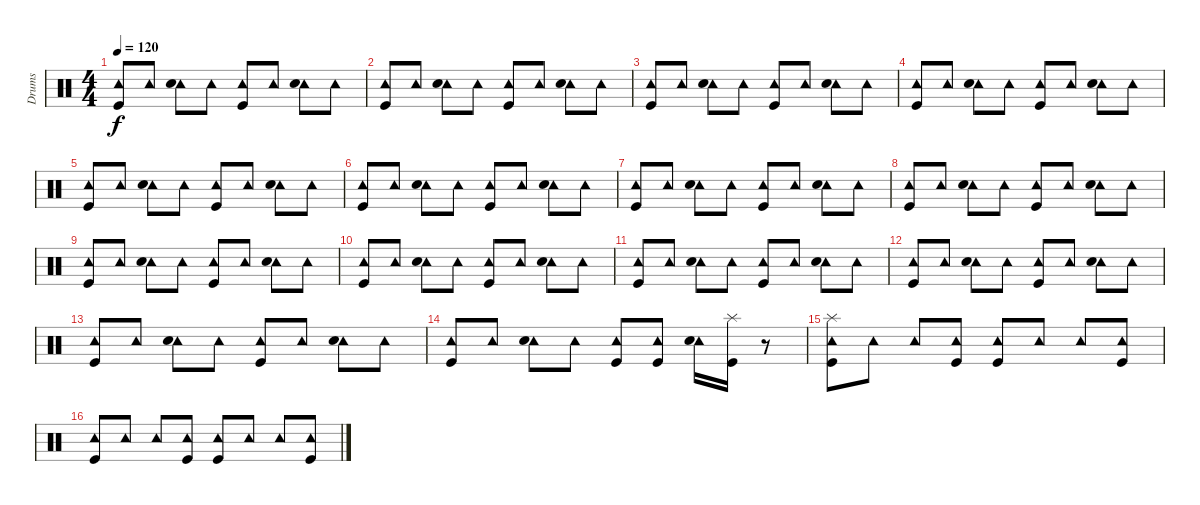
\track ("Drums" "Drums") {instrument percussion}
\staff {score}
\articulation defaults
\ts (4 4)
\tempo 120
\clef neutral
\ks c
("Tambourine (hit)" "Kick (hit)").8{dy f} "Tambourine (hit)".8 ("Tambourine (hit)" "Snare (hit) 2").8 "Tambourine (hit)".8 ("Tambourine (hit)" "Kick (hit)").8 "Tambourine (hit)".8 ("Tambourine (hit)" "Snare (hit) 2").8 "Tambourine (hit)".8 |
("Tambourine (hit)" "Kick (hit)").8 "Tambourine (hit)".8 ("Tambourine (hit)" "Snare (hit) 2").8 "Tambourine (hit)".8 ("Tambourine (hit)" "Kick (hit)").8 "Tambourine (hit)".8 ("Tambourine (hit)" "Snare (hit) 2").8 "Tambourine (hit)".8 |
("Tambourine (hit)" "Kick (hit)").8 "Tambourine (hit)".8 ("Tambourine (hit)" "Snare (hit) 2").8 "Tambourine (hit)".8 ("Tambourine (hit)" "Kick (hit)").8 "Tambourine (hit)".8 ("Tambourine (hit)" "Snare (hit) 2").8 "Tambourine (hit)".8 |
("Tambourine (hit)" "Kick (hit)").8 "Tambourine (hit)".8 ("Tambourine (hit)" "Snare (hit) 2").8 "Tambourine (hit)".8 ("Tambourine (hit)" "Kick (hit)").8 "Tambourine (hit)".8 ("Tambourine (hit)" "Snare (hit) 2").8 "Tambourine (hit)".8 |
("Tambourine (hit)" "Kick (hit)").8 "Tambourine (hit)".8 ("Tambourine (hit)" "Snare (hit) 2").8 "Tambourine (hit)".8 ("Tambourine (hit)" "Kick (hit)").8 "Tambourine (hit)".8 ("Tambourine (hit)" "Snare (hit) 2").8 "Tambourine (hit)".8 |
("Tambourine (hit)" "Kick (hit)").8 "Tambourine (hit)".8 ("Tambourine (hit)" "Snare (hit) 2").8 "Tambourine (hit)".8 ("Tambourine (hit)" "Kick (hit)").8 "Tambourine (hit)".8 ("Tambourine (hit)" "Snare (hit) 2").8 "Tambourine (hit)".8 |
("Tambourine (hit)" "Kick (hit)").8 "Tambourine (hit)".8 ("Tambourine (hit)" "Snare (hit) 2").8 "Tambourine (hit)".8 ("Tambourine (hit)" "Kick (hit)").8 "Tambourine (hit)".8 ("Tambourine (hit)" "Snare (hit) 2").8 "Tambourine (hit)".8 |
("Tambourine (hit)" "Kick (hit)").8 "Tambourine (hit)".8 ("Tambourine (hit)" "Snare (hit) 2").8 "Tambourine (hit)".8 ("Tambourine (hit)" "Kick (hit)").8 "Tambourine (hit)".8 ("Tambourine (hit)" "Snare (hit) 2").8 "Tambourine (hit)".8 |
("Tambourine (hit)" "Kick (hit)").8 "Tambourine (hit)".8 ("Tambourine (hit)" "Snare (hit) 2").8 "Tambourine (hit)".8 ("Tambourine (hit)" "Kick (hit)").8 "Tambourine (hit)".8 ("Tambourine (hit)" "Snare (hit) 2").8 "Tambourine (hit)".8 |
("Tambourine (hit)" "Kick (hit)").8 "Tambourine (hit)".8 ("Tambourine (hit)" "Snare (hit) 2").8 "Tambourine (hit)".8 ("Tambourine (hit)" "Kick (hit)").8 "Tambourine (hit)".8 ("Tambourine (hit)" "Snare (hit) 2").8 "Tambourine (hit)".8 |
("Tambourine (hit)" "Kick (hit)").8 "Tambourine (hit)".8 ("Tambourine (hit)" "Snare (hit) 2").8 "Tambourine (hit)".8 ("Tambourine (hit)" "Kick (hit)").8 "Tambourine (hit)".8 ("Tambourine (hit)" "Snare (hit) 2").8 "Tambourine (hit)".8 |
("Tambourine (hit)" "Kick (hit)").8 "Tambourine (hit)".8 ("Tambourine (hit)" "Snare (hit) 2").8 "Tambourine (hit)".8 ("Tambourine (hit)" "Kick (hit)").8 "Tambourine (hit)".8 ("Tambourine (hit)" "Snare (hit) 2").8 "Tambourine (hit)".8 |
("Tambourine (hit)" "Kick (hit)").8 "Tambourine (hit)".8 ("Tambourine (hit)" "Snare (hit) 2").8 "Tambourine (hit)".8 ("Tambourine (hit)" "Kick (hit)").8 "Tambourine (hit)".8 ("Tambourine (hit)" "Snare (hit) 2").8 "Tambourine (hit)".8 |
("Tambourine (hit)" "Kick (hit)").8 "Tambourine (hit)".8 ("Tambourine (hit)" "Snare (hit) 2").8 "Tambourine (hit)".8 ("Tambourine (hit)" "Kick (hit)").8 ("Tambourine (hit)" "Kick (hit)").8 ("Tambourine (hit)" "Snare (hit) 2").16 ("Splash (hit)" "Kick (hit)").16 r.8 |
("Tambourine (hit)" "Kick (hit)" "Splash (hit)").8 "Tambourine (hit)".8 "Tambourine (hit)".8 ("Tambourine (hit)" "Kick (hit)").8 ("Tambourine (hit)" "Kick (hit)").8 "Tambourine (hit)".8 "Tambourine (hit)".8 ("Tambourine (hit)" "Kick (hit)").8 |
("Tambourine (hit)" "Kick (hit)").8 "Tambourine (hit)".8 "Tambourine (hit)".8 ("Tambourine (hit)" "Kick (hit)").8 ("Tambourine (hit)" "Kick (hit)").8 "Tambourine (hit)".8 "Tambourine (hit)".8 ("Tambourine (hit)" "Kick (hit)").8
